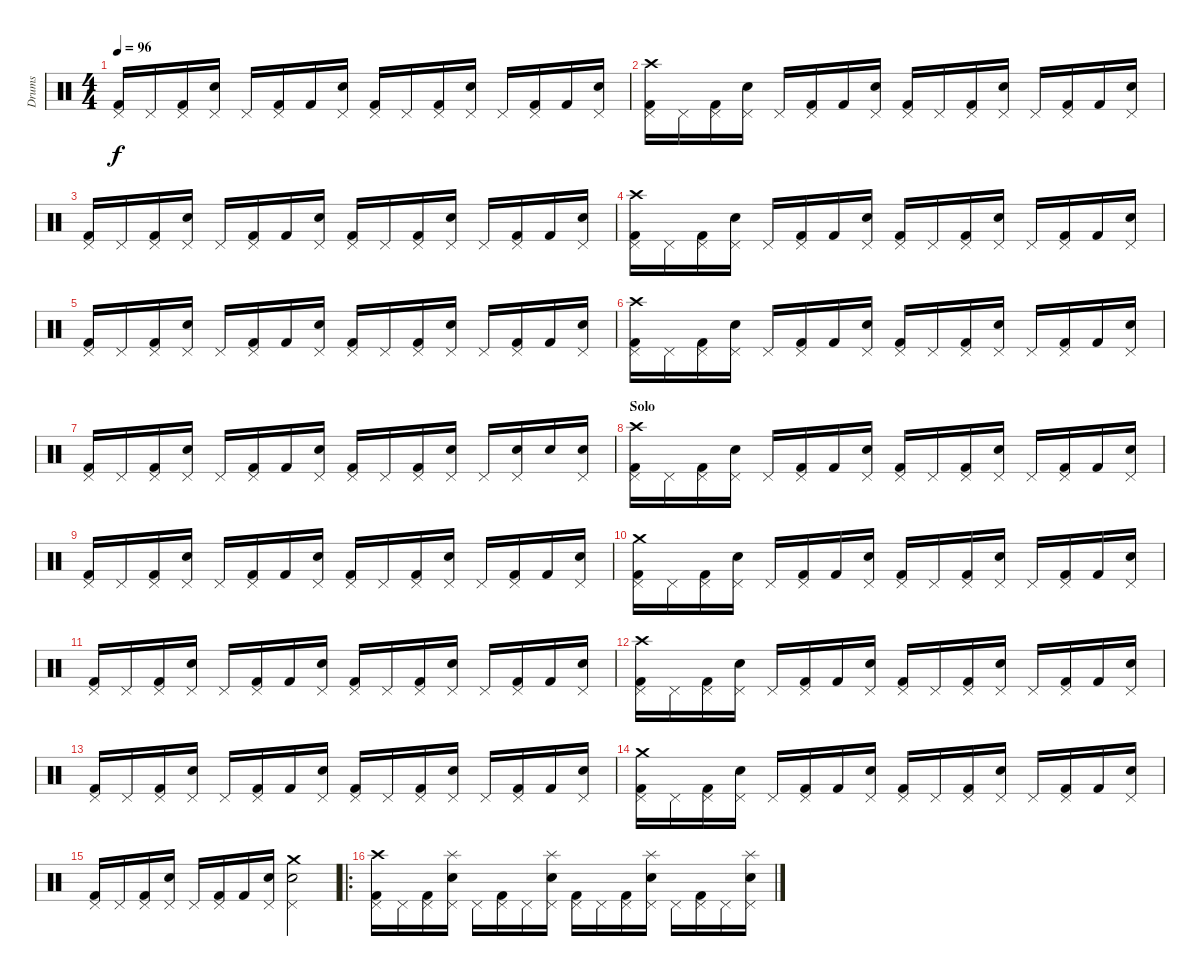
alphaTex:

\track ("Drums" "Drums") {instrument percussion}
\staff {score}
\articulation defaults
\ts (4 4)
\tempo 96
\clef neutral
\ks c
("Kick (hit) 2" "Pedal Hi-Hat (hit)").16{dy f} "Pedal Hi-Hat (hit)".16 ("Kick (hit) 2" "Pedal Hi-Hat (hit)").16 ("Snare (hit) 2" "Pedal Hi-Hat (hit)").16 "Pedal Hi-Hat (hit)".16 ("Kick (hit) 2" "Pedal Hi-Hat (hit)").16 "Kick (hit) 2".16 ("Snare (hit) 2" "Pedal Hi-Hat (hit)").16 ("Kick (hit) 2" "Pedal Hi-Hat (hit)").16 "Pedal Hi-Hat (hit)".16 ("Kick (hit) 2" "Pedal Hi-Hat (hit)").16 ("Snare (hit) 2" "Pedal Hi-Hat (hit)").16 "Pedal Hi-Hat (hit)".16 ("Kick (hit) 2" "Pedal Hi-Hat (hit)").16 "Kick (hit) 2".16 ("Snare (hit) 2" "Pedal Hi-Hat (hit)").16 |
("Kick (hit) 2" "Pedal Hi-Hat (hit)" "Crash high (hit)").16 "Pedal Hi-Hat (hit)".16 ("Kick (hit) 2" "Pedal Hi-Hat (hit)").16 ("Snare (hit) 2" "Pedal Hi-Hat (hit)").16 "Pedal Hi-Hat (hit)".16 ("Kick (hit) 2" "Pedal Hi-Hat (hit)").16 "Kick (hit) 2".16 ("Snare (hit) 2" "Pedal Hi-Hat (hit)").16 ("Kick (hit) 2" "Pedal Hi-Hat (hit)").16 "Pedal Hi-Hat (hit)".16 ("Kick (hit) 2" "Pedal Hi-Hat (hit)").16 ("Snare (hit) 2" "Pedal Hi-Hat (hit)").16 "Pedal Hi-Hat (hit)".16 ("Kick (hit) 2" "Pedal Hi-Hat (hit)").16 "Kick (hit) 2".16 ("Snare (hit) 2" "Pedal Hi-Hat (hit)").16 |
("Kick (hit) 2" "Pedal Hi-Hat (hit)").16 "Pedal Hi-Hat (hit)".16 ("Kick (hit) 2" "Pedal Hi-Hat (hit)").16 ("Snare (hit) 2" "Pedal Hi-Hat (hit)").16 "Pedal Hi-Hat (hit)".16 ("Kick (hit) 2" "Pedal Hi-Hat (hit)").16 "Kick (hit) 2".16 ("Snare (hit) 2" "Pedal Hi-Hat (hit)").16 ("Kick (hit) 2" "Pedal Hi-Hat (hit)").16 "Pedal Hi-Hat (hit)".16 ("Kick (hit) 2" "Pedal Hi-Hat (hit)").16 ("Snare (hit) 2" "Pedal Hi-Hat (hit)").16 "Pedal Hi-Hat (hit)".16 ("Kick (hit) 2" "Pedal Hi-Hat (hit)").16 "Kick (hit) 2".16 ("Snare (hit) 2" "Pedal Hi-Hat (hit)").16 |
("Kick (hit) 2" "Pedal Hi-Hat (hit)" "Crash high (hit)").16 "Pedal Hi-Hat (hit)".16 ("Kick (hit) 2" "Pedal Hi-Hat (hit)").16 ("Snare (hit) 2" "Pedal Hi-Hat (hit)").16 "Pedal Hi-Hat (hit)".16 ("Kick (hit) 2" "Pedal Hi-Hat (hit)").16 "Kick (hit) 2".16 ("Snare (hit) 2" "Pedal Hi-Hat (hit)").16 ("Kick (hit) 2" "Pedal Hi-Hat (hit)").16 "Pedal Hi-Hat (hit)".16 ("Kick (hit) 2" "Pedal Hi-Hat (hit)").16 ("Snare (hit) 2" "Pedal Hi-Hat (hit)").16 "Pedal Hi-Hat (hit)".16 ("Kick (hit) 2" "Pedal Hi-Hat (hit)").16 "Kick (hit) 2".16 ("Snare (hit) 2" "Pedal Hi-Hat (hit)").16 |
("Kick (hit) 2" "Pedal Hi-Hat (hit)").16 "Pedal Hi-Hat (hit)".16 ("Kick (hit) 2" "Pedal Hi-Hat (hit)").16 ("Snare (hit) 2" "Pedal Hi-Hat (hit)").16 "Pedal Hi-Hat (hit)".16 ("Kick (hit) 2" "Pedal Hi-Hat (hit)").16 "Kick (hit) 2".16 ("Snare (hit) 2" "Pedal Hi-Hat (hit)").16 ("Kick (hit) 2" "Pedal Hi-Hat (hit)").16 "Pedal Hi-Hat (hit)".16 ("Kick (hit) 2" "Pedal Hi-Hat (hit)").16 ("Snare (hit) 2" "Pedal Hi-Hat (hit)").16 "Pedal Hi-Hat (hit)".16 ("Kick (hit) 2" "Pedal Hi-Hat (hit)").16 "Kick (hit) 2".16 ("Snare (hit) 2" "Pedal Hi-Hat (hit)").16 |
("Kick (hit) 2" "Pedal Hi-Hat (hit)" "Crash high (hit)").16 "Pedal Hi-Hat (hit)".16 ("Kick (hit) 2" "Pedal Hi-Hat (hit)").16 ("Snare (hit) 2" "Pedal Hi-Hat (hit)").16 "Pedal Hi-Hat (hit)".16 ("Kick (hit) 2" "Pedal Hi-Hat (hit)").16 "Kick (hit) 2".16 ("Snare (hit) 2" "Pedal Hi-Hat (hit)").16 ("Kick (hit) 2" "Pedal Hi-Hat (hit)").16 "Pedal Hi-Hat (hit)".16 ("Kick (hit) 2" "Pedal Hi-Hat (hit)").16 ("Snare (hit) 2" "Pedal Hi-Hat (hit)").16 "Pedal Hi-Hat (hit)".16 ("Kick (hit) 2" "Pedal Hi-Hat (hit)").16 "Kick (hit) 2".16 ("Snare (hit) 2" "Pedal Hi-Hat (hit)").16 |
("Kick (hit) 2" "Pedal Hi-Hat (hit)").16 "Pedal Hi-Hat (hit)".16 ("Kick (hit) 2" "Pedal Hi-Hat (hit)").16 ("Snare (hit) 2" "Pedal Hi-Hat (hit)").16 "Pedal Hi-Hat (hit)".16 ("Kick (hit) 2" "Pedal Hi-Hat (hit)").16 "Kick (hit) 2".16 ("Snare (hit) 2" "Pedal Hi-Hat (hit)").16 ("Kick (hit) 2" "Pedal Hi-Hat (hit)").16 "Pedal Hi-Hat (hit)".16 ("Kick (hit) 2" "Pedal Hi-Hat (hit)").16 ("Snare (hit) 2" "Pedal Hi-Hat (hit)").16 "Pedal Hi-Hat (hit)".16 ("Snare (hit) 2" "Pedal Hi-Hat (hit)").16 "Snare (hit) 2".16 ("Snare (hit) 2" "Pedal Hi-Hat (hit)").16 |
\section ("" "Solo")
("Kick (hit) 2" "Pedal Hi-Hat (hit)" "Crash high (hit)").16 "Pedal Hi-Hat (hit)".16 ("Kick (hit) 2" "Pedal Hi-Hat (hit)").16 ("Snare (hit) 2" "Pedal Hi-Hat (hit)").16 "Pedal Hi-Hat (hit)".16 ("Kick (hit) 2" "Pedal Hi-Hat (hit)").16 "Kick (hit) 2".16 ("Snare (hit) 2" "Pedal Hi-Hat (hit)").16 ("Kick (hit) 2" "Pedal Hi-Hat (hit)").16 "Pedal Hi-Hat (hit)".16 ("Kick (hit) 2" "Pedal Hi-Hat (hit)").16 ("Snare (hit) 2" "Pedal Hi-Hat (hit)").16 "Pedal Hi-Hat (hit)".16 ("Kick (hit) 2" "Pedal Hi-Hat (hit)").16 "Kick (hit) 2".16 ("Snare (hit) 2" "Pedal Hi-Hat (hit)").16 |
("Kick (hit) 2" "Pedal Hi-Hat (hit)").16 "Pedal Hi-Hat (hit)".16 ("Kick (hit) 2" "Pedal Hi-Hat (hit)").16 ("Snare (hit) 2" "Pedal Hi-Hat (hit)").16 "Pedal Hi-Hat (hit)".16 ("Kick (hit) 2" "Pedal Hi-Hat (hit)").16 "Kick (hit) 2".16 ("Snare (hit) 2" "Pedal Hi-Hat (hit)").16 ("Kick (hit) 2" "Pedal Hi-Hat (hit)").16 "Pedal Hi-Hat (hit)".16 ("Kick (hit) 2" "Pedal Hi-Hat (hit)").16 ("Snare (hit) 2" "Pedal Hi-Hat (hit)").16 "Pedal Hi-Hat (hit)".16 ("Kick (hit) 2" "Pedal Hi-Hat (hit)").16 "Kick (hit) 2".16 ("Snare (hit) 2" "Pedal Hi-Hat (hit)").16 |
("Kick (hit) 2" "Pedal Hi-Hat (hit)" "Crash medium (hit)").16 "Pedal Hi-Hat (hit)".16 ("Kick (hit) 2" "Pedal Hi-Hat (hit)").16 ("Snare (hit) 2" "Pedal Hi-Hat (hit)").16 "Pedal Hi-Hat (hit)".16 ("Kick (hit) 2" "Pedal Hi-Hat (hit)").16 "Kick (hit) 2".16 ("Snare (hit) 2" "Pedal Hi-Hat (hit)").16 ("Kick (hit) 2" "Pedal Hi-Hat (hit)").16 "Pedal Hi-Hat (hit)".16 ("Kick (hit) 2" "Pedal Hi-Hat (hit)").16 ("Snare (hit) 2" "Pedal Hi-Hat (hit)").16 "Pedal Hi-Hat (hit)".16 ("Kick (hit) 2" "Pedal Hi-Hat (hit)").16 "Kick (hit) 2".16 ("Snare (hit) 2" "Pedal Hi-Hat (hit)").16 |
("Kick (hit) 2" "Pedal Hi-Hat (hit)").16 "Pedal Hi-Hat (hit)".16 ("Kick (hit) 2" "Pedal Hi-Hat (hit)").16 ("Snare (hit) 2" "Pedal Hi-Hat (hit)").16 "Pedal Hi-Hat (hit)".16 ("Kick (hit) 2" "Pedal Hi-Hat (hit)").16 "Kick (hit) 2".16 ("Snare (hit) 2" "Pedal Hi-Hat (hit)").16 ("Kick (hit) 2" "Pedal Hi-Hat (hit)").16 "Pedal Hi-Hat (hit)".16 ("Kick (hit) 2" "Pedal Hi-Hat (hit)").16 ("Snare (hit) 2" "Pedal Hi-Hat (hit)").16 "Pedal Hi-Hat (hit)".16 ("Kick (hit) 2" "Pedal Hi-Hat (hit)").16 "Kick (hit) 2".16 ("Snare (hit) 2" "Pedal Hi-Hat (hit)").16 |
("Kick (hit) 2" "Pedal Hi-Hat (hit)" "Crash high (hit)").16 "Pedal Hi-Hat (hit)".16 ("Kick (hit) 2" "Pedal Hi-Hat (hit)").16 ("Snare (hit) 2" "Pedal Hi-Hat (hit)").16 "Pedal Hi-Hat (hit)".16 ("Kick (hit) 2" "Pedal Hi-Hat (hit)").16 "Kick (hit) 2".16 ("Snare (hit) 2" "Pedal Hi-Hat (hit)").16 ("Kick (hit) 2" "Pedal Hi-Hat (hit)").16 "Pedal Hi-Hat (hit)".16 ("Kick (hit) 2" "Pedal Hi-Hat (hit)").16 ("Snare (hit) 2" "Pedal Hi-Hat (hit)").16 "Pedal Hi-Hat (hit)".16 ("Kick (hit) 2" "Pedal Hi-Hat (hit)").16 "Kick (hit) 2".16 ("Snare (hit) 2" "Pedal Hi-Hat (hit)").16 |
("Kick (hit) 2" "Pedal Hi-Hat (hit)").16 "Pedal Hi-Hat (hit)".16 ("Kick (hit) 2" "Pedal Hi-Hat (hit)").16 ("Snare (hit) 2" "Pedal Hi-Hat (hit)").16 "Pedal Hi-Hat (hit)".16 ("Kick (hit) 2" "Pedal Hi-Hat (hit)").16 "Kick (hit) 2".16 ("Snare (hit) 2" "Pedal Hi-Hat (hit)").16 ("Kick (hit) 2" "Pedal Hi-Hat (hit)").16 "Pedal Hi-Hat (hit)".16 ("Kick (hit) 2" "Pedal Hi-Hat (hit)").16 ("Snare (hit) 2" "Pedal Hi-Hat (hit)").16 "Pedal Hi-Hat (hit)".16 ("Kick (hit) 2" "Pedal Hi-Hat (hit)").16 "Kick (hit) 2".16 ("Snare (hit) 2" "Pedal Hi-Hat (hit)").16 |
("Kick (hit) 2" "Pedal Hi-Hat (hit)" "Crash medium (hit)").16 "Pedal Hi-Hat (hit)".16 ("Kick (hit) 2" "Pedal Hi-Hat (hit)").16 ("Snare (hit) 2" "Pedal Hi-Hat (hit)").16 "Pedal Hi-Hat (hit)".16 ("Kick (hit) 2" "Pedal Hi-Hat (hit)").16 "Kick (hit) 2".16 ("Snare (hit) 2" "Pedal Hi-Hat (hit)").16 ("Kick (hit) 2" "Pedal Hi-Hat (hit)").16 "Pedal Hi-Hat (hit)".16 ("Kick (hit) 2" "Pedal Hi-Hat (hit)").16 ("Snare (hit) 2" "Pedal Hi-Hat (hit)").16 "Pedal Hi-Hat (hit)".16 ("Kick (hit) 2" "Pedal Hi-Hat (hit)").16 "Kick (hit) 2".16 ("Snare (hit) 2" "Pedal Hi-Hat (hit)").16 |
("Kick (hit) 2" "Pedal Hi-Hat (hit)").16 "Pedal Hi-Hat (hit)".16 ("Kick (hit) 2" "Pedal Hi-Hat (hit)").16 ("Snare (hit) 2" "Pedal Hi-Hat (hit)").16 "Pedal Hi-Hat (hit)".16 ("Kick (hit) 2" "Pedal Hi-Hat (hit)").16 "Kick (hit) 2".16 ("Snare (hit) 2" "Pedal Hi-Hat (hit)").16 ("Snare (hit) 2" "Pedal Hi-Hat (hit)" "Crash medium (hit)").2 |
\ro
("Kick (hit) 2" "Pedal Hi-Hat (hit)" "Crash high (hit)").16 "Pedal Hi-Hat (hit)".16 ("Kick (hit) 2" "Pedal Hi-Hat (hit)").16 ("Snare (hit) 2" "Pedal Hi-Hat (hit)" "Splash (hit)").16 "Pedal Hi-Hat (hit)".16 ("Kick (hit) 2" "Pedal Hi-Hat (hit)").16 "Pedal Hi-Hat (hit)".16 ("Snare (hit) 2" "Pedal Hi-Hat (hit)" "Splash (hit)").16 ("Kick (hit) 2" "Pedal Hi-Hat (hit)").16 "Pedal Hi-Hat (hit)".16 ("Kick (hit) 2" "Pedal Hi-Hat (hit)").16 ("Snare (hit) 2" "Pedal Hi-Hat (hit)" "Splash (hit)").16 "Pedal Hi-Hat (hit)".16 ("Kick (hit) 2" "Pedal Hi-Hat (hit)").16 "Pedal Hi-Hat (hit)".16 ("Snare (hit) 2" "Pedal Hi-Hat (hit)" "Splash (hit)").16
